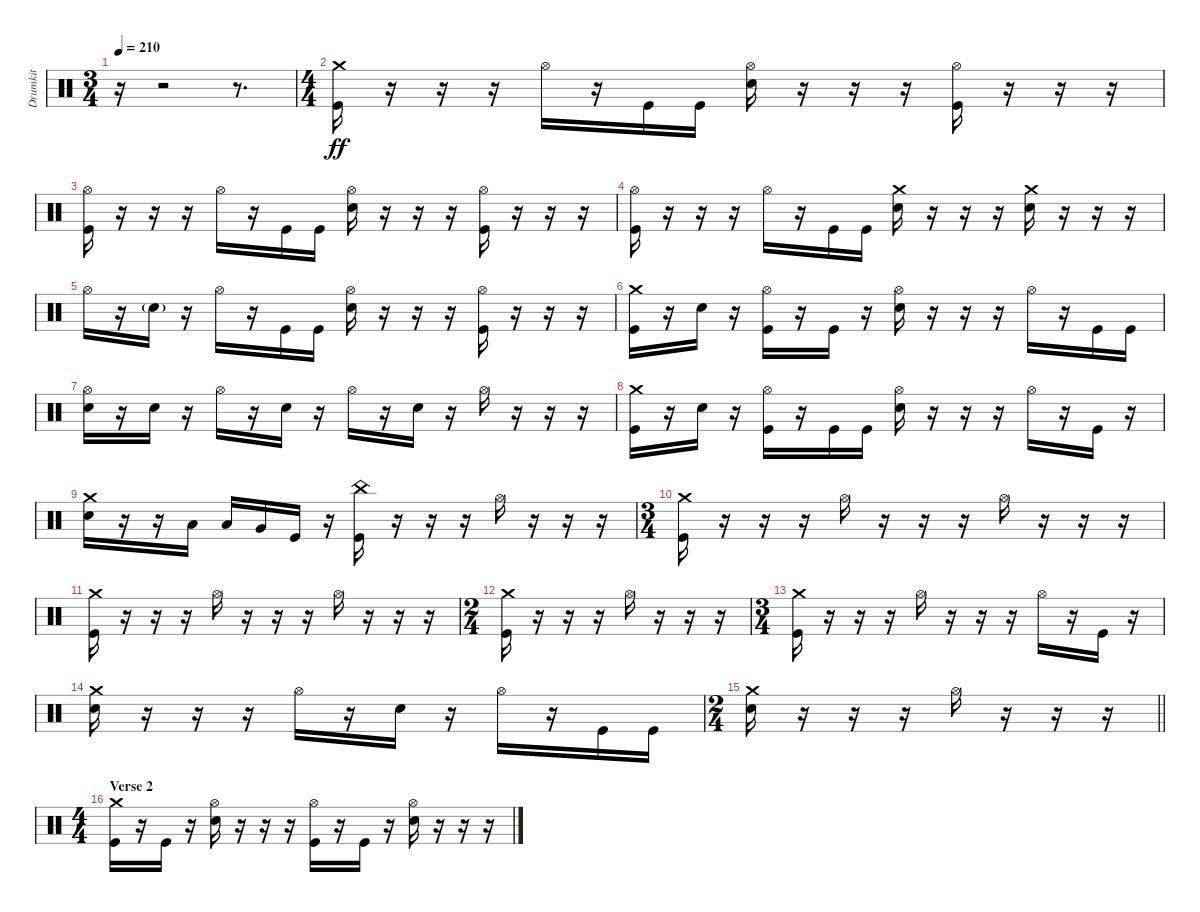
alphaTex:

\track ("Drumkit" "Drumkit") {instrument percussion}
\staff {score}
\articulation defaults
\ts (3 4)
\tempo 210
\clef neutral
\ks c
r.16{dy ff} r.2 r.8{d} |
\ts (4 4)
("Crash medium (hit)" "Kick (hit)").16 r.16 r.16 r.16 "Hi-Hat (open)".16 r.16 "Kick (hit)".16 "Kick (hit)".16 ("Hi-Hat (open)" "Snare (hit) 2").16 r.16 r.16 r.16 ("Hi-Hat (open)" "Kick (hit)").16 r.16 r.16 r.16 |
("Hi-Hat (open)" "Kick (hit)").16 r.16 r.16 r.16 "Hi-Hat (open)".16 r.16 "Kick (hit)".16 "Kick (hit)".16 ("Hi-Hat (open)" "Snare (hit) 2").16 r.16 r.16 r.16 ("Hi-Hat (open)" "Kick (hit)").16 r.16 r.16 r.16 |
("Hi-Hat (open)" "Kick (hit)").16 r.16 r.16 r.16 "Hi-Hat (open)".16 r.16 "Kick (hit)".16 "Kick (hit)".16 ("Crash medium (hit)" "Snare (hit) 2").16 r.16 r.16 r.16 ("Crash medium (hit)" "Snare (hit) 2").16 r.16 r.16 r.16 |
"Hi-Hat (open)".16 r.16 "Snare (hit) 2"{g}.16 r.16 "Hi-Hat (open)".16 r.16 "Kick (hit)".16 "Kick (hit)".16 ("Hi-Hat (open)" "Snare (hit) 2").16 r.16 r.16 r.16 ("Hi-Hat (open)" "Kick (hit)").16 r.16 r.16 r.16 |
("Crash medium (hit)" "Kick (hit)").16 r.16 "Snare (hit) 2".16 r.16 ("Hi-Hat (open)" "Kick (hit)").16 r.16 "Kick (hit)".16 r.16 ("Hi-Hat (open)" "Snare (hit) 2").16 r.16 r.16 r.16 "Hi-Hat (open)".16 r.16 "Kick (hit)".16 "Kick (hit)".16 |
("Hi-Hat (open)" "Snare (hit) 2").16 r.16 "Snare (hit) 2".16 r.16 "Hi-Hat (open)".16 r.16 "Snare (hit) 2".16 r.16 "Hi-Hat (open)".16 r.16 "Snare (hit) 2".16 r.16 "Hi-Hat (open)".16 r.16 r.16 r.16 |
("Crash medium (hit)" "Kick (hit)").16 r.16 "Snare (hit) 2".16 r.16 ("Hi-Hat (open)" "Kick (hit)").16 r.16 "Kick (hit)".16 "Kick (hit)".16 ("Hi-Hat (open)" "Snare (hit) 2").16 r.16 r.16 r.16 "Hi-Hat (open)".16 r.16 "Kick (hit)".16 r.16 |
("Crash medium (hit)" "Snare (hit) 2").16 r.16 r.16 "Low Tom (hit)".16 "Low Tom (hit)".16 "Very Low Tom (hit)".16 "Kick (hit)".16 r.16 ("China (hit)" "Kick (hit)").16 r.16 r.16 r.16 "Hi-Hat (open)".16 r.16 r.16 r.16 |
\ts (3 4)
("Crash medium (hit)" "Kick (hit)").16 r.16 r.16 r.16 "Hi-Hat (open)".16 r.16 r.16 r.16 "Hi-Hat (open)".16 r.16 r.16 r.16 |
("Crash medium (hit)" "Kick (hit)").16 r.16 r.16 r.16 "Hi-Hat (open)".16 r.16 r.16 r.16 "Hi-Hat (open)".16 r.16 r.16 r.16 |
\ts (2 4)
("Crash medium (hit)" "Kick (hit)").16 r.16 r.16 r.16 "Hi-Hat (open)".16 r.16 r.16 r.16 |
\ts (3 4)
("Crash medium (hit)" "Kick (hit)").16 r.16 r.16 r.16 "Hi-Hat (open)".16 r.16 r.16 r.16 "Hi-Hat (open)".16 r.16 "Kick (hit)".16 r.16 |
("Crash medium (hit)" "Snare (hit) 2").16 r.16 r.16 r.16 "Hi-Hat (open)".16 r.16 "Snare (hit) 2".16 r.16 "Hi-Hat (open)".16 r.16 "Kick (hit)".16 "Kick (hit)".16 |
\ts (2 4)
\barLineRight lightlight
("Crash medium (hit)" "Snare (hit) 2").16 r.16 r.16 r.16 "Hi-Hat (open)".16 r.16 r.16 r.16 |
\ts (4 4)
\section ("" "Verse 2")
("Crash medium (hit)" "Kick (hit)").16 r.16 "Kick (hit)".16 r.16 ("Hi-Hat (open)" "Snare (hit) 2").16 r.16 r.16 r.16 ("Hi-Hat (open)" "Kick (hit)").16 r.16 "Kick (hit)".16 r.16 ("Hi-Hat (open)" "Snare (hit) 2").16 r.16 r.16 r.16
